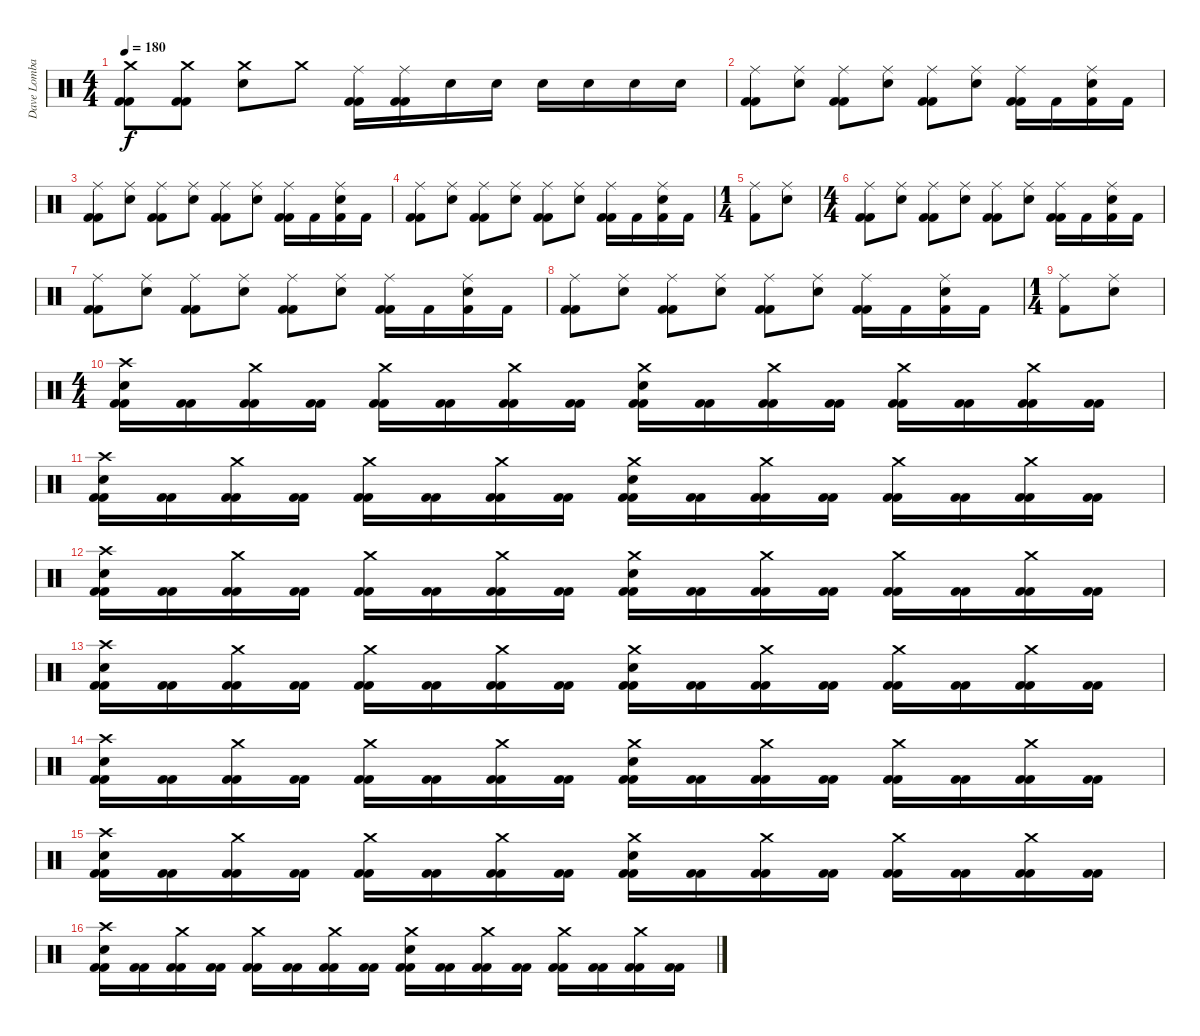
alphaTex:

\track ("Dave Lombardo" "Dave Lomba") {instrument percussion}
\staff {score}
\articulation defaults
\ts (4 4)
\tempo 180
\clef neutral
\ks c
("Crash medium (hit)" "Kick (hit) 2" "Kick (hit) 2").8{dy f} ("Crash medium (hit)" "Kick (hit) 2" "Kick (hit) 2").8 ("Crash medium (hit)" "Electric Snare (hit)").8 "Crash medium (hit)".8 ("Ride (middle)" "Kick (hit) 2" "Kick (hit) 2").16 ("Ride (middle)" "Kick (hit) 2" "Kick (hit) 2").16 "Electric Snare (hit)".16 "Electric Snare (hit)".16 "Electric Snare (hit)".16 "Electric Snare (hit)".16 "Electric Snare (hit)".16 "Electric Snare (hit)".16 |
("Ride (middle)" "Kick (hit) 2" "Kick (hit) 2").8 ("Ride (middle)" "Electric Snare (hit)").8 ("Ride (middle)" "Kick (hit) 2" "Kick (hit) 2").8 ("Ride (middle)" "Electric Snare (hit)").8 ("Ride (middle)" "Kick (hit) 2" "Kick (hit) 2").8 ("Ride (middle)" "Electric Snare (hit)").8 ("Ride (middle)" "Kick (hit) 2" "Kick (hit) 2").16 "Kick (hit) 2".16 ("Ride (middle)" "Electric Snare (hit)" "Kick (hit) 2").16 "Kick (hit) 2".16 |
("Ride (middle)" "Kick (hit) 2" "Kick (hit) 2").8 ("Ride (middle)" "Electric Snare (hit)").8 ("Ride (middle)" "Kick (hit) 2" "Kick (hit) 2").8 ("Ride (middle)" "Electric Snare (hit)").8 ("Ride (middle)" "Kick (hit) 2" "Kick (hit) 2").8 ("Ride (middle)" "Electric Snare (hit)").8 ("Ride (middle)" "Kick (hit) 2" "Kick (hit) 2").16 "Kick (hit) 2".16 ("Ride (middle)" "Electric Snare (hit)" "Kick (hit) 2").16 "Kick (hit) 2".16 |
("Ride (middle)" "Kick (hit) 2" "Kick (hit) 2").8 ("Ride (middle)" "Electric Snare (hit)").8 ("Ride (middle)" "Kick (hit) 2" "Kick (hit) 2").8 ("Ride (middle)" "Electric Snare (hit)").8 ("Ride (middle)" "Kick (hit) 2" "Kick (hit) 2").8 ("Ride (middle)" "Electric Snare (hit)").8 ("Ride (middle)" "Kick (hit) 2" "Kick (hit) 2").16 "Kick (hit) 2".16 ("Ride (middle)" "Electric Snare (hit)" "Kick (hit) 2").16 "Kick (hit) 2".16 |
\ts (1 4)
("Ride (middle)" "Kick (hit) 2").8 ("Ride (middle)" "Electric Snare (hit)").8 |
\ts (4 4)
("Ride (middle)" "Kick (hit) 2" "Kick (hit) 2").8 ("Ride (middle)" "Electric Snare (hit)").8 ("Ride (middle)" "Kick (hit) 2" "Kick (hit) 2").8 ("Ride (middle)" "Electric Snare (hit)").8 ("Ride (middle)" "Kick (hit) 2" "Kick (hit) 2").8 ("Ride (middle)" "Electric Snare (hit)").8 ("Ride (middle)" "Kick (hit) 2" "Kick (hit) 2").16 "Kick (hit) 2".16 ("Ride (middle)" "Electric Snare (hit)" "Kick (hit) 2").16 "Kick (hit) 2".16 |
("Ride (middle)" "Kick (hit) 2" "Kick (hit) 2").8 ("Ride (middle)" "Electric Snare (hit)").8 ("Ride (middle)" "Kick (hit) 2" "Kick (hit) 2").8 ("Ride (middle)" "Electric Snare (hit)").8 ("Ride (middle)" "Kick (hit) 2" "Kick (hit) 2").8 ("Ride (middle)" "Electric Snare (hit)").8 ("Ride (middle)" "Kick (hit) 2" "Kick (hit) 2").16 "Kick (hit) 2".16 ("Ride (middle)" "Electric Snare (hit)" "Kick (hit) 2").16 "Kick (hit) 2".16 |
("Ride (middle)" "Kick (hit) 2" "Kick (hit) 2").8 ("Ride (middle)" "Electric Snare (hit)").8 ("Ride (middle)" "Kick (hit) 2" "Kick (hit) 2").8 ("Ride (middle)" "Electric Snare (hit)").8 ("Ride (middle)" "Kick (hit) 2" "Kick (hit) 2").8 ("Ride (middle)" "Electric Snare (hit)").8 ("Ride (middle)" "Kick (hit) 2" "Kick (hit) 2").16 "Kick (hit) 2".16 ("Ride (middle)" "Electric Snare (hit)" "Kick (hit) 2").16 "Kick (hit) 2".16 |
\ts (1 4)
("Ride (middle)" "Kick (hit) 2").8 ("Ride (middle)" "Electric Snare (hit)").8 |
\ts (4 4)
("Crash high (hit)" "Electric Snare (hit)" "Kick (hit) 2" "Kick (hit) 2").16 ("Kick (hit) 2" "Kick (hit) 2").16 ("Crash medium (hit)" "Kick (hit) 2" "Kick (hit) 2").16 ("Kick (hit) 2" "Kick (hit) 2").16 ("Crash medium (hit)" "Kick (hit) 2" "Kick (hit) 2").16 ("Kick (hit) 2" "Kick (hit) 2").16 ("Crash medium (hit)" "Kick (hit) 2" "Kick (hit) 2").16 ("Kick (hit) 2" "Kick (hit) 2").16 ("Crash medium (hit)" "Electric Snare (hit)" "Kick (hit) 2" "Kick (hit) 2").16 ("Kick (hit) 2" "Kick (hit) 2").16 ("Crash medium (hit)" "Kick (hit) 2" "Kick (hit) 2").16 ("Kick (hit) 2" "Kick (hit) 2").16 ("Crash medium (hit)" "Kick (hit) 2" "Kick (hit) 2").16 ("Kick (hit) 2" "Kick (hit) 2").16 ("Crash medium (hit)" "Kick (hit) 2" "Kick (hit) 2").16 ("Kick (hit) 2" "Kick (hit) 2").16 |
("Crash high (hit)" "Electric Snare (hit)" "Kick (hit) 2" "Kick (hit) 2").16 ("Kick (hit) 2" "Kick (hit) 2").16 ("Crash medium (hit)" "Kick (hit) 2" "Kick (hit) 2").16 ("Kick (hit) 2" "Kick (hit) 2").16 ("Crash medium (hit)" "Kick (hit) 2" "Kick (hit) 2").16 ("Kick (hit) 2" "Kick (hit) 2").16 ("Crash medium (hit)" "Kick (hit) 2" "Kick (hit) 2").16 ("Kick (hit) 2" "Kick (hit) 2").16 ("Crash medium (hit)" "Electric Snare (hit)" "Kick (hit) 2" "Kick (hit) 2").16 ("Kick (hit) 2" "Kick (hit) 2").16 ("Crash medium (hit)" "Kick (hit) 2" "Kick (hit) 2").16 ("Kick (hit) 2" "Kick (hit) 2").16 ("Crash medium (hit)" "Kick (hit) 2" "Kick (hit) 2").16 ("Kick (hit) 2" "Kick (hit) 2").16 ("Crash medium (hit)" "Kick (hit) 2" "Kick (hit) 2").16 ("Kick (hit) 2" "Kick (hit) 2").16 |
("Crash high (hit)" "Electric Snare (hit)" "Kick (hit) 2" "Kick (hit) 2").16 ("Kick (hit) 2" "Kick (hit) 2").16 ("Crash medium (hit)" "Kick (hit) 2" "Kick (hit) 2").16 ("Kick (hit) 2" "Kick (hit) 2").16 ("Crash medium (hit)" "Kick (hit) 2" "Kick (hit) 2").16 ("Kick (hit) 2" "Kick (hit) 2").16 ("Crash medium (hit)" "Kick (hit) 2" "Kick (hit) 2").16 ("Kick (hit) 2" "Kick (hit) 2").16 ("Crash medium (hit)" "Electric Snare (hit)" "Kick (hit) 2" "Kick (hit) 2").16 ("Kick (hit) 2" "Kick (hit) 2").16 ("Crash medium (hit)" "Kick (hit) 2" "Kick (hit) 2").16 ("Kick (hit) 2" "Kick (hit) 2").16 ("Crash medium (hit)" "Kick (hit) 2" "Kick (hit) 2").16 ("Kick (hit) 2" "Kick (hit) 2").16 ("Crash medium (hit)" "Kick (hit) 2" "Kick (hit) 2").16 ("Kick (hit) 2" "Kick (hit) 2").16 |
("Crash high (hit)" "Electric Snare (hit)" "Kick (hit) 2" "Kick (hit) 2").16 ("Kick (hit) 2" "Kick (hit) 2").16 ("Crash medium (hit)" "Kick (hit) 2" "Kick (hit) 2").16 ("Kick (hit) 2" "Kick (hit) 2").16 ("Crash medium (hit)" "Kick (hit) 2" "Kick (hit) 2").16 ("Kick (hit) 2" "Kick (hit) 2").16 ("Crash medium (hit)" "Kick (hit) 2" "Kick (hit) 2").16 ("Kick (hit) 2" "Kick (hit) 2").16 ("Crash medium (hit)" "Electric Snare (hit)" "Kick (hit) 2" "Kick (hit) 2").16 ("Kick (hit) 2" "Kick (hit) 2").16 ("Crash medium (hit)" "Kick (hit) 2" "Kick (hit) 2").16 ("Kick (hit) 2" "Kick (hit) 2").16 ("Crash medium (hit)" "Kick (hit) 2" "Kick (hit) 2").16 ("Kick (hit) 2" "Kick (hit) 2").16 ("Crash medium (hit)" "Kick (hit) 2" "Kick (hit) 2").16 ("Kick (hit) 2" "Kick (hit) 2").16 |
("Crash high (hit)" "Electric Snare (hit)" "Kick (hit) 2" "Kick (hit) 2").16 ("Kick (hit) 2" "Kick (hit) 2").16 ("Crash medium (hit)" "Kick (hit) 2" "Kick (hit) 2").16 ("Kick (hit) 2" "Kick (hit) 2").16 ("Crash medium (hit)" "Kick (hit) 2" "Kick (hit) 2").16 ("Kick (hit) 2" "Kick (hit) 2").16 ("Crash medium (hit)" "Kick (hit) 2" "Kick (hit) 2").16 ("Kick (hit) 2" "Kick (hit) 2").16 ("Crash medium (hit)" "Electric Snare (hit)" "Kick (hit) 2" "Kick (hit) 2").16 ("Kick (hit) 2" "Kick (hit) 2").16 ("Crash medium (hit)" "Kick (hit) 2" "Kick (hit) 2").16 ("Kick (hit) 2" "Kick (hit) 2").16 ("Crash medium (hit)" "Kick (hit) 2" "Kick (hit) 2").16 ("Kick (hit) 2" "Kick (hit) 2").16 ("Crash medium (hit)" "Kick (hit) 2" "Kick (hit) 2").16 ("Kick (hit) 2" "Kick (hit) 2").16 |
("Crash high (hit)" "Electric Snare (hit)" "Kick (hit) 2" "Kick (hit) 2").16 ("Kick (hit) 2" "Kick (hit) 2").16 ("Crash medium (hit)" "Kick (hit) 2" "Kick (hit) 2").16 ("Kick (hit) 2" "Kick (hit) 2").16 ("Crash medium (hit)" "Kick (hit) 2" "Kick (hit) 2").16 ("Kick (hit) 2" "Kick (hit) 2").16 ("Crash medium (hit)" "Kick (hit) 2" "Kick (hit) 2").16 ("Kick (hit) 2" "Kick (hit) 2").16 ("Crash medium (hit)" "Electric Snare (hit)" "Kick (hit) 2" "Kick (hit) 2").16 ("Kick (hit) 2" "Kick (hit) 2").16 ("Crash medium (hit)" "Kick (hit) 2" "Kick (hit) 2").16 ("Kick (hit) 2" "Kick (hit) 2").16 ("Crash medium (hit)" "Kick (hit) 2" "Kick (hit) 2").16 ("Kick (hit) 2" "Kick (hit) 2").16 ("Crash medium (hit)" "Kick (hit) 2" "Kick (hit) 2").16 ("Kick (hit) 2" "Kick (hit) 2").16 |
("Crash high (hit)" "Electric Snare (hit)" "Kick (hit) 2" "Kick (hit) 2").16 ("Kick (hit) 2" "Kick (hit) 2").16 ("Crash medium (hit)" "Kick (hit) 2" "Kick (hit) 2").16 ("Kick (hit) 2" "Kick (hit) 2").16 ("Crash medium (hit)" "Kick (hit) 2" "Kick (hit) 2").16 ("Kick (hit) 2" "Kick (hit) 2").16 ("Crash medium (hit)" "Kick (hit) 2" "Kick (hit) 2").16 ("Kick (hit) 2" "Kick (hit) 2").16 ("Crash medium (hit)" "Electric Snare (hit)" "Kick (hit) 2" "Kick (hit) 2").16 ("Kick (hit) 2" "Kick (hit) 2").16 ("Crash medium (hit)" "Kick (hit) 2" "Kick (hit) 2").16 ("Kick (hit) 2" "Kick (hit) 2").16 ("Crash medium (hit)" "Kick (hit) 2" "Kick (hit) 2").16 ("Kick (hit) 2" "Kick (hit) 2").16 ("Crash medium (hit)" "Kick (hit) 2" "Kick (hit) 2").16 ("Kick (hit) 2" "Kick (hit) 2").16
